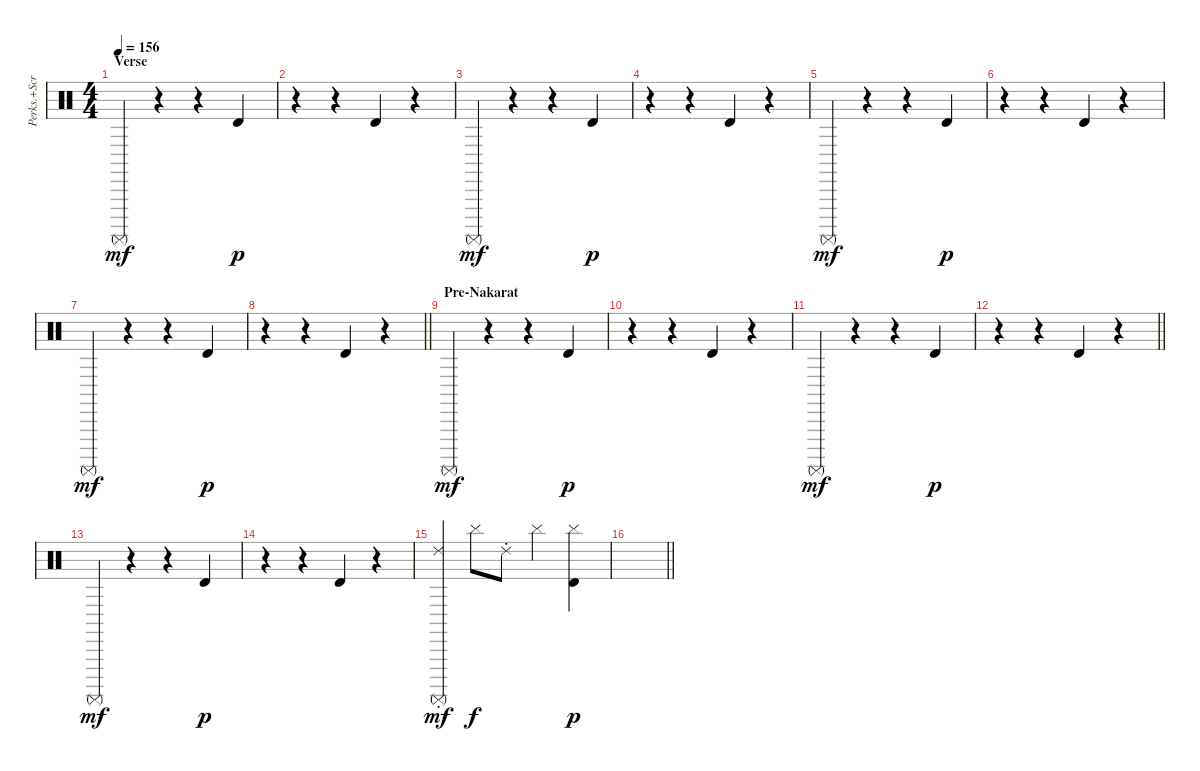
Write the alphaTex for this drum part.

\track ("Perks.+Scratch" "Perks.+Scr") {instrument percussion}
\staff {score}
\articulation defaults
\ts (4 4)
\section ("" "Verse")
\tempo 156
\clef neutral
\ks c "Surdo (mute)".4{dy mf}
r.4 r.4 "Timbale high (hit)".4{dy p} |
r.4 r.4 "Timbale high (hit)".4 r.4 |
"Surdo (mute)".4{dy mf} r.4 r.4 "Timbale high (hit)".4{dy p} |
r.4 r.4 "Timbale high (hit)".4 r.4 |
"Surdo (mute)".4{dy mf} r.4 r.4 "Timbale high (hit)".4{dy p} |
r.4 r.4 "Timbale high (hit)".4 r.4 |
"Surdo (mute)".4{dy mf} r.4 r.4 "Timbale high (hit)".4{dy p} |
\barLineRight lightlight
r.4 r.4 "Timbale high (hit)".4 r.4 |
\section ("" "Pre-Nakarat")
"Surdo (mute)".4{dy mf} r.4 r.4 "Timbale high (hit)".4{dy p} |
r.4 r.4 "Timbale high (hit)".4 r.4 |
"Surdo (mute)".4{dy mf} r.4 r.4 "Timbale high (hit)".4{dy p} |
\barLineRight lightlight
r.4 r.4 "Timbale high (hit)".4 r.4 |
"Surdo (mute)".4{dy mf} r.4 r.4 "Timbale high (hit)".4{dy p} |
r.4 r.4 "Timbale high (hit)".4 r.4 |
("Ride (choke) 2" "Surdo (mute)").4{dy mf} "Cymbal (hit)".8{dy f} "Ride (choke) 2".8 "Cymbal (hit)".4 ("Cymbal (hit)" "Timbale high (hit)").4{dy p} |
\barLineRight lightlight
